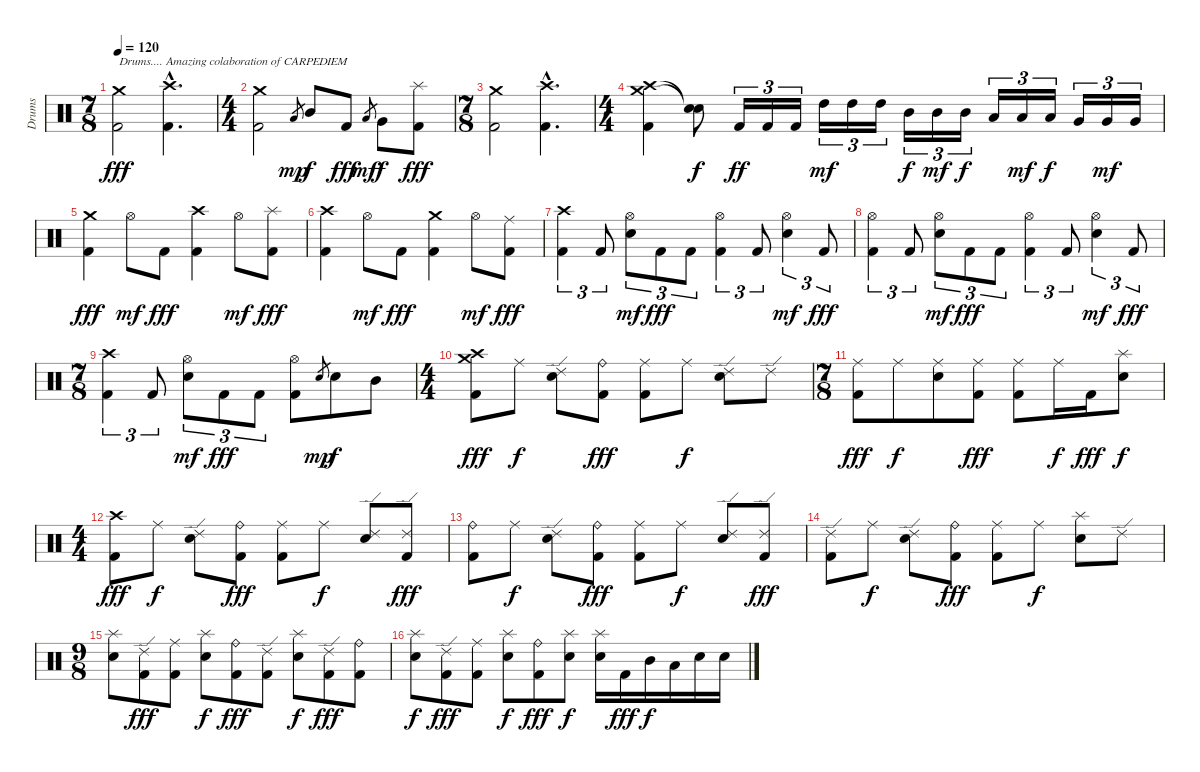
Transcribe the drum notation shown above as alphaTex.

\track ("Drums" "Drums") {instrument percussion}
\staff {score}
\articulation defaults
\ts (7 8)
\tempo 120
\clef neutral
\ks c
("Crash medium (hit)" "Kick (hit) 2").2{txt "Drums.... Amazing colaboration of CARPEDIEM" dy fff} ("Crash high (hit)"{hac} "Kick (hit) 2"{hac}).4{d} |
\ts (4 4)
("Crash medium (hit)" "Kick (hit) 2").2 "Low Tom (hit)".8{gr dy mp} "Mid Tom (hit)".8{dy f} "Kick (hit) 2".8{dy fff} "Low Tom (hit)".8{gr dy mf} "Very Low Tom (hit)".8{dy f} ("Splash (hit)" "Kick (hit) 2").8{dy fff} |
\ts (7 8)
("Crash medium (hit)" "Kick (hit) 2").2 ("Crash high (hit)"{hac} "Kick (hit) 2"{hac}).4{d} |
\ts (4 4)
("Crash high (hit)" "Crash medium (hit)" "Kick (hit) 2").4 ("Snare (hit)"{t} "Snare (hit)"{t}).8{dy f} "Kick (hit) 2".16{tu (3 2) dy ff} "Kick (hit) 2".16{tu (3 2)} "Kick (hit) 2".16{tu (3 2)} "High Tom (hit)".16{tu (3 2) dy mf} "High Tom (hit)".16{tu (3 2)} "High Tom (hit)".16{tu (3 2)} "Mid Tom (hit)".16{tu (3 2) dy f} "Mid Tom (hit)".16{tu (3 2) dy mf} "Mid Tom (hit)".16{tu (3 2) dy f} "Low Tom (hit)".16{tu (3 2)} "Low Tom (hit)".16{tu (3 2) dy mf} "Low Tom (hit)".16{tu (3 2) dy f} "Very Low Tom (hit)".16{tu (3 2)} "Very Low Tom (hit)".16{tu (3 2) dy mf} "Very Low Tom (hit)".16{tu (3 2)} |
("Crash medium (hit)" "Kick (hit) 2").4{dy fff} "Hi-Hat (open)".8{dy mf} "Kick (hit) 2".8{dy fff} ("Crash high (hit)" "Kick (hit) 2").4 "Hi-Hat (open)".8{dy mf} ("Splash (hit)" "Kick (hit) 2").8{dy fff} |
("Crash high (hit)" "Kick (hit) 2").4 "Hi-Hat (open)".8{dy mf} "Kick (hit) 2".8{dy fff} ("Crash medium (hit)" "Kick (hit) 2").4 "Hi-Hat (open)".8{dy mf} ("Ride (middle)" "Kick (hit) 2").8{dy fff} |
("Crash high (hit)" "Kick (hit) 2").4{tu (3 2)} "Kick (hit) 2".8{tu (3 2)} ("Hi-Hat (open)" "Electric Snare (hit)").8{tu (3 2) dy mf} "Kick (hit) 2".8{tu (3 2) dy fff} "Kick (hit) 2".8{tu (3 2)} ("Hi-Hat (open)" "Kick (hit) 2").4{tu (3 2)} "Kick (hit) 2".8{tu (3 2)} ("Hi-Hat (open)" "Electric Snare (hit)").4{tu (3 2) dy mf} "Kick (hit) 2".8{tu (3 2) dy fff} |
("Hi-Hat (open)" "Kick (hit) 2").4{tu (3 2)} "Kick (hit) 2".8{tu (3 2)} ("Hi-Hat (open)" "Electric Snare (hit)").8{tu (3 2) dy mf} "Kick (hit) 2".8{tu (3 2) dy fff} "Kick (hit) 2".8{tu (3 2)} ("Hi-Hat (open)" "Kick (hit) 2").4{tu (3 2)} "Kick (hit) 2".8{tu (3 2)} ("Hi-Hat (open)" "Electric Snare (hit)").4{tu (3 2) dy mf} "Kick (hit) 2".8{tu (3 2) dy fff} |
\ts (7 8)
("Crash high (hit)" "Kick (hit) 2").4{tu (3 2)} "Kick (hit) 2".8{tu (3 2)} ("Hi-Hat (open)" "Electric Snare (hit)").8{tu (3 2) dy mf} "Kick (hit) 2".8{tu (3 2) dy fff} "Kick (hit) 2".8{tu (3 2)} ("Hi-Hat (open)" "Kick (hit) 2").8 "Electric Snare (hit)".8{gr dy mp} "Electric Snare (hit)".8{dy f} "Mid Tom (hit)".8 |
\ts (4 4)
("Crash medium (hit)" "Crash high (hit)" "Kick (hit) 2").8{dy fff} "Ride (middle)".8{dy f} ("Ride (edge) 2" "Electric Snare (hit)").8 ("Ride (bell)" "Kick (hit) 2").8{dy fff} ("Ride (middle)" "Kick (hit) 2").8 "Ride (middle)".8{dy f} ("Ride (edge) 2" "Electric Snare (hit)").8 "Ride (edge) 2".8 |
\ts (7 8)
("Ride (middle)" "Kick (hit) 2").8{dy fff} "Ride (middle)".8{dy f} ("Ride (middle)" "Electric Snare (hit)").8 ("Ride (middle)" "Kick (hit) 2").8{dy fff} ("Ride (middle)" "Kick (hit) 2").8 "Ride (middle)".16{dy f} "Kick (hit) 2".16{dy fff} ("Splash (hit)" "Electric Snare (hit)").8{dy f} |
\ts (4 4)
("Crash high (hit)" "Kick (hit) 2").8{dy fff} "Ride (middle)".8{dy f} ("Ride (edge) 2" "Electric Snare (hit)").8 ("Ride (bell)" "Kick (hit) 2").8{dy fff} ("Ride (middle)" "Kick (hit) 2").8 "Ride (middle)".8{dy f} ("Ride (edge) 2" "Electric Snare (hit)").8 ("Ride (edge) 2" "Kick (hit) 2").8{dy fff} |
("Ride (bell)" "Kick (hit) 2").8 "Ride (middle)".8{dy f} ("Ride (edge) 2" "Electric Snare (hit)").8 ("Ride (bell)" "Kick (hit) 2").8{dy fff} ("Ride (middle)" "Kick (hit) 2").8 "Ride (middle)".8{dy f} ("Ride (edge) 2" "Electric Snare (hit)").8 ("Ride (edge) 2" "Kick (hit) 2").8{dy fff} |
("Ride (edge) 2" "Kick (hit) 2").8 "Ride (middle)".8{dy f} ("Ride (edge) 2" "Electric Snare (hit)").8 ("Ride (bell)" "Kick (hit) 2").8{dy fff} ("Ride (middle)" "Kick (hit) 2").8 "Ride (middle)".8{dy f} ("Splash (hit)" "Electric Snare (hit)").8 "Ride (edge) 2".8 |
\ts (9 8)
("Splash (hit)" "Electric Snare (hit)").8 ("Ride (edge) 2" "Kick (hit) 2").8{dy fff} ("Ride (middle)" "Kick (hit) 2").8 ("Splash (hit)" "Electric Snare (hit)").8{dy f} ("Ride (bell)" "Kick (hit) 2").8{dy fff} ("Ride (edge) 2" "Kick (hit) 2").8 ("Splash (hit)" "Electric Snare (hit)").8{dy f} ("Ride (edge) 2" "Kick (hit) 2").8{dy fff} ("Ride (bell)" "Kick (hit) 2").8 |
("Splash (hit)" "Electric Snare (hit)").8{dy f} ("Ride (edge) 2" "Kick (hit) 2").8{dy fff} ("Ride (middle)" "Kick (hit) 2").8 ("Splash (hit)" "Electric Snare (hit)").8{dy f} ("Ride (bell)" "Kick (hit) 2").8{dy fff} ("Splash (hit)" "Electric Snare (hit)").8{dy f} ("Splash (hit)" "Electric Snare (hit)").16 "Kick (hit) 2".16{dy fff} "Mid Tom (hit)".16{dy f} "Low Tom (hit)".16 "Electric Snare (hit)".16 "Electric Snare (hit)".16
